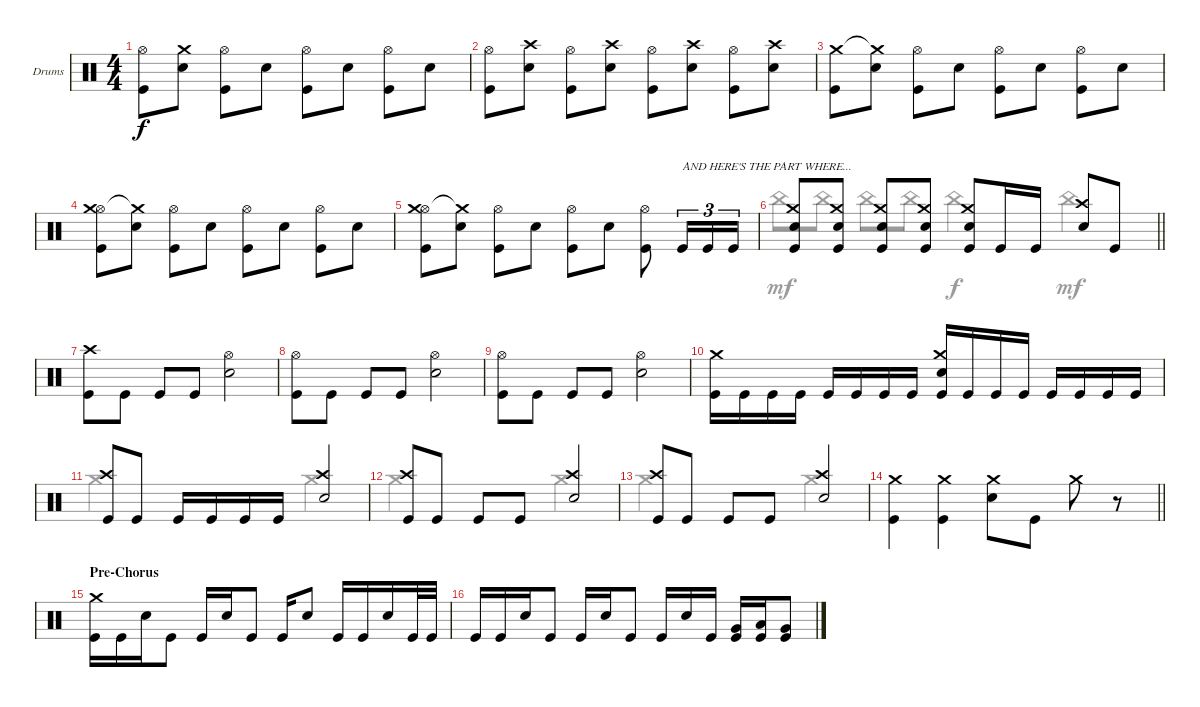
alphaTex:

\bracketExtendMode groupsimilarinstruments
\firstSystemTrackNameOrientation horizontal
\otherSystemsTrackNameOrientation horizontal
\track ("Drumkit" "Drums") {instrument percussion}
\staff {score}
\articulation defaults
\voice
\ts (4 4)
\tempo (188 hide)
\clef neutral
\ks c
("Hi-Hat (open)" "Kick (hit)").8{dy f} ("Crash medium (hit)" "Snare (hit) 2").8 ("Hi-Hat (open)" "Kick (hit)").8 "Snare (hit) 2".8 ("Hi-Hat (open)" "Kick (hit)").8 "Snare (hit) 2".8 ("Hi-Hat (open)" "Kick (hit)").8 "Snare (hit) 2".8 |
\tempo (193 1 hide)
("Hi-Hat (open)" "Kick (hit)").8 ("Crash high (hit)" "Snare (hit) 2").8 ("Hi-Hat (open)" "Kick (hit)").8 ("Crash high (hit)" "Snare (hit) 2").8 ("Hi-Hat (open)" "Kick (hit)").8 ("Crash high (hit)" "Snare (hit) 2").8 ("Hi-Hat (open)" "Kick (hit)").8 ("Crash high (hit)" "Snare (hit) 2").8 |
\tempo (193 hide)
("Crash medium (hit)" "Kick (hit)").8 ("Crash medium (hit)"{t} "Snare (hit) 2").8 ("Hi-Hat (open)" "Kick (hit)").8 "Snare (hit) 2".8 ("Hi-Hat (open)" "Kick (hit)").8 "Snare (hit) 2".8 ("Hi-Hat (open)" "Kick (hit)").8 "Snare (hit) 2".8 |
("Hi-Hat (open)" "Crash medium (hit)" "Kick (hit)").8 ("Crash medium (hit)"{t} "Snare (hit) 2").8 ("Hi-Hat (open)" "Kick (hit)").8 "Snare (hit) 2".8 ("Hi-Hat (open)" "Kick (hit)").8 "Snare (hit) 2".8 ("Hi-Hat (open)" "Kick (hit)").8 "Snare (hit) 2".8 |
("Hi-Hat (open)" "Crash medium (hit)" "Kick (hit)").8 ("Crash medium (hit)"{t} "Snare (hit) 2").8 ("Hi-Hat (open)" "Kick (hit)").8 "Snare (hit) 2".8 ("Hi-Hat (open)" "Kick (hit)").8 "Snare (hit) 2".8 ("Hi-Hat (open)" "Kick (hit)").8 "Kick (hit)".16{tu (3 2) txt "AND HERE'S THE PART WHERE..."} "Kick (hit)".16{tu (3 2)} "Kick (hit)".16{tu (3 2)} |
\barLineRight lightlight
("Crash medium (hit)" "Snare (hit) 2" "Kick (hit)").8 ("Crash medium (hit)" "Snare (hit) 2" "Kick (hit)").8 ("Crash medium (hit)" "Snare (hit) 2" "Kick (hit)").8 ("Crash medium (hit)" "Snare (hit) 2" "Kick (hit)").8 ("Crash medium (hit)" "Snare (hit) 2" "Kick (hit)").8 "Kick (hit)".16 "Kick (hit)".16 ("Crash high (hit)" "Snare (hit) 2").8 "Kick (hit)".8 |
\section ("" "")
("Crash high (hit)" "Kick (hit)").8 "Kick (hit)".8 "Kick (hit)".8 "Kick (hit)".8 ("Hi-Hat (open)" "Snare (hit) 2").2 |
("Hi-Hat (open)" "Kick (hit)").8 "Kick (hit)".8 "Kick (hit)".8 "Kick (hit)".8 ("Hi-Hat (open)" "Snare (hit) 2").2 |
("Hi-Hat (open)" "Kick (hit)").8 "Kick (hit)".8 "Kick (hit)".8 "Kick (hit)".8 ("Hi-Hat (open)" "Snare (hit) 2").2 |
("Crash medium (hit)" "Kick (hit)").16 "Kick (hit)".16 "Kick (hit)".16 "Kick (hit)".16 "Kick (hit)".16 "Kick (hit)".16 "Kick (hit)".16 "Kick (hit)".16 ("Crash medium (hit)" "Snare (hit) 2" "Kick (hit)").16 "Kick (hit)".16 "Kick (hit)".16 "Kick (hit)".16 "Kick (hit)".16 "Kick (hit)".16 "Kick (hit)".16 "Kick (hit)".16 |
("Crash high (hit)" "Kick (hit)").8 "Kick (hit)".8 "Kick (hit)".16 "Kick (hit)".16 "Kick (hit)".16 "Kick (hit)".16 ("Crash high (hit)" "Snare (hit) 2").2 |
("Crash high (hit)" "Kick (hit)").8 "Kick (hit)".8 "Kick (hit)".8 "Kick (hit)".8 ("Crash high (hit)" "Snare (hit) 2").2 |
("Crash high (hit)" "Kick (hit)").8 "Kick (hit)".8 "Kick (hit)".8 "Kick (hit)".8 ("Crash high (hit)" "Snare (hit) 2").2 |
\barLineRight lightlight
("Crash medium (hit)" "Kick (hit)").4 ("Crash medium (hit)" "Kick (hit)").4 ("Crash medium (hit)" "Snare (hit) 2").8 "Kick (hit)".8 "Crash medium (hit)".8 r.8 |
\section ("" "Pre-Chorus")
\tempo (94 hide)
("Crash medium (hit)" "Kick (hit)").16 "Kick (hit)".16 "Snare (hit) 2".16 "Kick (hit)".8 "Kick (hit)".16 "Snare (hit) 2".16 "Kick (hit)".8 "Kick (hit)".16 "Snare (hit) 2".8 "Kick (hit)".16 "Kick (hit)".16 "Snare (hit) 2".16 "Kick (hit)".32 "Kick (hit)".32 |
"Kick (hit)".16 "Kick (hit)".16 "Snare (hit) 2".16 "Kick (hit)".8 "Kick (hit)".16 "Snare (hit) 2".16 "Kick (hit)".8 "Kick (hit)".16 "Snare (hit) 2".16 "Kick (hit)".16 ("Very Low Tom (hit)" "Kick (hit)").16 ("Low Tom (hit)" "Kick (hit)").16 ("Very Low Tom (hit)" "Kick (hit)").8
\voice
\clef neutral
\ottava regular
\simile none
\ks c
|
|
|
|
|
\barLineRight lightlight "China (hit)".8{dy mf} "China (hit)".8 "China (hit)".8 "China (hit)".8 "China (hit)".4{dy f} "China (hit)".4{dy mf}
|
|
|
|
|
"Crash medium (hit)".2 "Crash medium (hit)".2 |
"Crash medium (hit)".2 "Crash medium (hit)".2 |
"Crash medium (hit)".2 "Crash medium (hit)".2 |
\barLineRight lightlight
|
|
